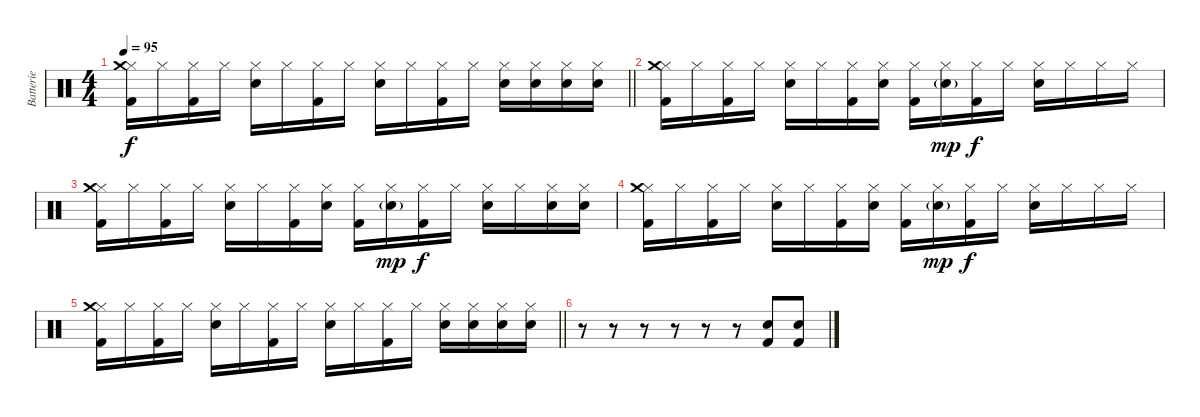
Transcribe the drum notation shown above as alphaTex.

\track ("Batterie" "Batterie") {instrument percussion}
\staff {score}
\articulation defaults
\ts (4 4)
\tempo 95
\clef neutral
\barLineRight lightlight
\ks c
("Hi-Hat (closed)" "Crash medium (hit)" "Kick (hit) 2").16{dy f} "Hi-Hat (closed)".16 ("Hi-Hat (closed)" "Kick (hit) 2").16 "Hi-Hat (closed)".16 ("Hi-Hat (closed)" "Electric Snare (hit)").16 "Hi-Hat (closed)".16 ("Hi-Hat (closed)" "Kick (hit) 2").16 "Hi-Hat (closed)".16 ("Hi-Hat (closed)" "Electric Snare (hit)").16 "Hi-Hat (closed)".16 ("Hi-Hat (closed)" "Kick (hit) 2").16 "Hi-Hat (closed)".16 ("Hi-Hat (closed)" "Electric Snare (hit)").16 ("Hi-Hat (closed)" "Electric Snare (hit)").16 ("Hi-Hat (closed)" "Electric Snare (hit)").16 ("Hi-Hat (closed)" "Electric Snare (hit)").16 |
("Hi-Hat (closed)" "Crash medium (hit)" "Kick (hit) 2").16 "Hi-Hat (closed)".16 ("Hi-Hat (closed)" "Kick (hit) 2").16 "Hi-Hat (closed)".16 ("Hi-Hat (closed)" "Electric Snare (hit)").16 "Hi-Hat (closed)".16 ("Hi-Hat (closed)" "Kick (hit) 2").16 ("Hi-Hat (closed)" "Electric Snare (hit)").16 ("Hi-Hat (closed)" "Kick (hit) 2").16 ("Hi-Hat (closed)" "Electric Snare (hit)"{g}).16{dy mp} ("Hi-Hat (closed)" "Kick (hit) 2").16{dy f} "Hi-Hat (closed)".16 ("Hi-Hat (closed)" "Electric Snare (hit)").16 "Hi-Hat (closed)".16 "Hi-Hat (closed)".16 "Hi-Hat (closed)".16 |
("Hi-Hat (closed)" "Crash medium (hit)" "Kick (hit) 2").16 "Hi-Hat (closed)".16 ("Hi-Hat (closed)" "Kick (hit) 2").16 "Hi-Hat (closed)".16 ("Hi-Hat (closed)" "Electric Snare (hit)").16 "Hi-Hat (closed)".16 ("Hi-Hat (closed)" "Kick (hit) 2").16 ("Hi-Hat (closed)" "Electric Snare (hit)").16 ("Hi-Hat (closed)" "Kick (hit) 2").16 ("Hi-Hat (closed)" "Electric Snare (hit)"{g}).16{dy mp} ("Hi-Hat (closed)" "Kick (hit) 2").16{dy f} "Hi-Hat (closed)".16 ("Hi-Hat (closed)" "Electric Snare (hit)").16 "Hi-Hat (closed)".16 ("Hi-Hat (closed)" "Electric Snare (hit)").16 ("Hi-Hat (closed)" "Electric Snare (hit)").16 |
("Hi-Hat (closed)" "Crash medium (hit)" "Kick (hit) 2").16 "Hi-Hat (closed)".16 ("Hi-Hat (closed)" "Kick (hit) 2").16 "Hi-Hat (closed)".16 ("Hi-Hat (closed)" "Electric Snare (hit)").16 "Hi-Hat (closed)".16 ("Hi-Hat (closed)" "Kick (hit) 2").16 ("Hi-Hat (closed)" "Electric Snare (hit)").16 ("Hi-Hat (closed)" "Kick (hit) 2").16 ("Hi-Hat (closed)" "Electric Snare (hit)"{g}).16{dy mp} ("Hi-Hat (closed)" "Kick (hit) 2").16{dy f} "Hi-Hat (closed)".16 ("Hi-Hat (closed)" "Electric Snare (hit)").16 "Hi-Hat (closed)".16 "Hi-Hat (closed)".16 "Hi-Hat (closed)".16 |
\barLineRight lightlight
("Hi-Hat (closed)" "Crash medium (hit)" "Kick (hit) 2").16 "Hi-Hat (closed)".16 ("Hi-Hat (closed)" "Kick (hit) 2").16 "Hi-Hat (closed)".16 ("Hi-Hat (closed)" "Electric Snare (hit)").16 "Hi-Hat (closed)".16 ("Hi-Hat (closed)" "Kick (hit) 2").16 "Hi-Hat (closed)".16 ("Hi-Hat (closed)" "Electric Snare (hit)").16 "Hi-Hat (closed)".16 ("Hi-Hat (closed)" "Kick (hit) 2").16 "Hi-Hat (closed)".16 ("Hi-Hat (closed)" "Electric Snare (hit)").16 ("Hi-Hat (closed)" "Electric Snare (hit)").16 ("Hi-Hat (closed)" "Electric Snare (hit)").16 ("Hi-Hat (closed)" "Electric Snare (hit)").16 |
r.8 r.8 r.8 r.8 r.8 r.8 ("Electric Snare (hit)" "Kick (hit) 2").8 ("Electric Snare (hit)" "Kick (hit) 2").8
